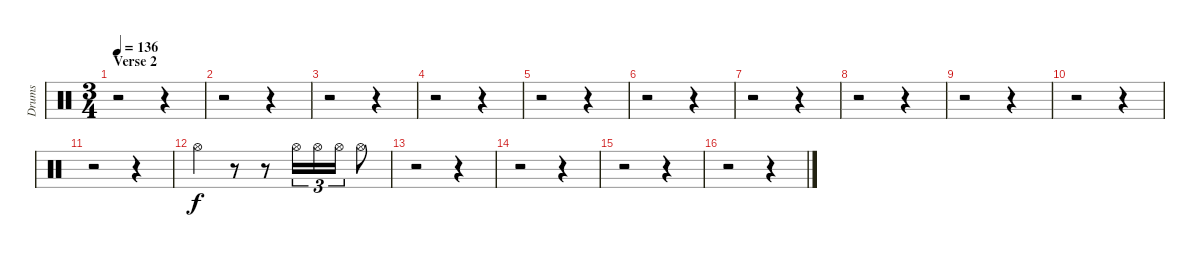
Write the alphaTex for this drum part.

\track ("Drums" "Drums") {instrument percussion}
\staff {score}
\articulation defaults
\ts (3 4)
\section ("" "Verse 2")
\tempo 136
\clef neutral
\ks c
r.2{dy f} r.4 |
r.2 r.4 |
r.2 r.4 |
r.2 r.4 |
r.2 r.4 |
r.2 r.4 |
r.2 r.4 |
r.2 r.4 |
r.2 r.4 |
r.2 r.4 |
r.2 r.4 |
"Hi-Hat (open)".4 r.8 r.8 "Hi-Hat (open)".16{tu (3 2)} "Hi-Hat (open)".16{tu (3 2)} "Hi-Hat (open)".16{tu (3 2)} "Hi-Hat (open)".8 |
r.2 r.4 |
r.2 r.4 |
r.2 r.4 |
r.2 r.4
